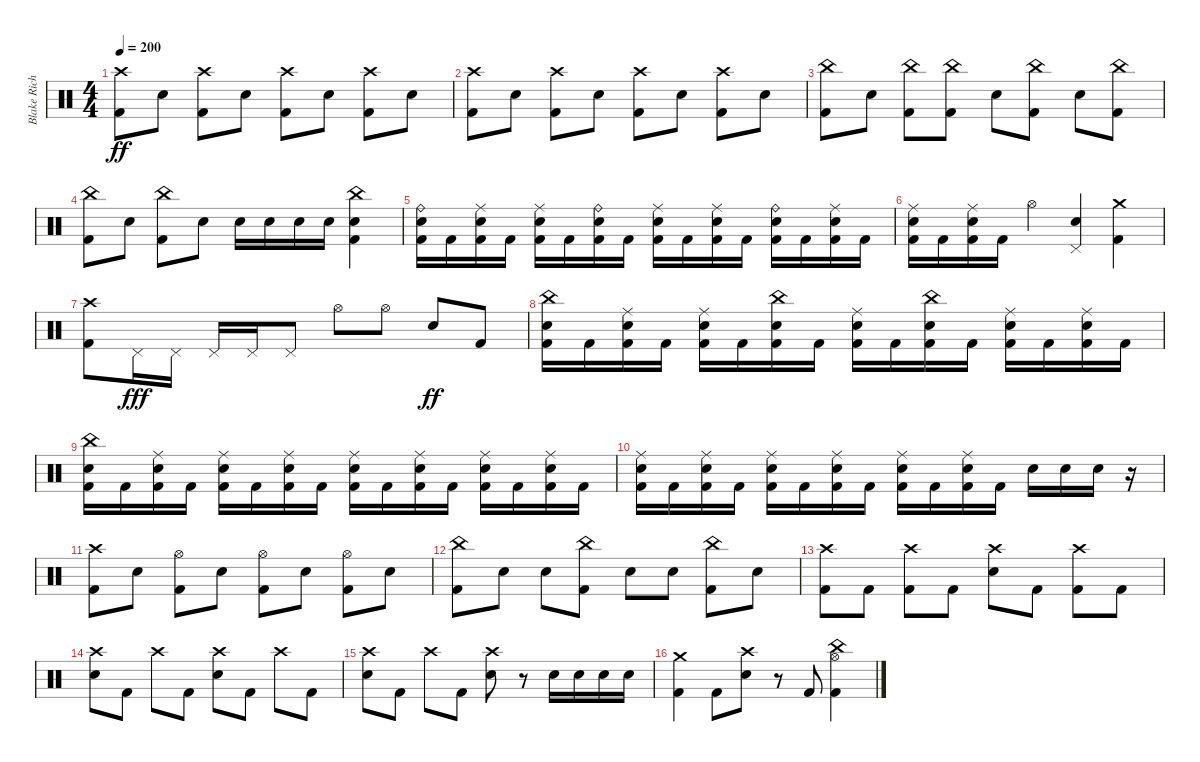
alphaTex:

\track ("Blake Richardson" "Blake Rich") {instrument percussion}
\staff {score}
\articulation defaults
\ts (4 4)
\tempo 200
\clef neutral
\ks c
("Crash high (hit)" "Kick (hit) 2").8{dy ff} "Electric Snare (hit)".8 ("Crash high (hit)" "Kick (hit) 2").8 "Electric Snare (hit)".8 ("Crash high (hit)" "Kick (hit) 2").8 "Electric Snare (hit)".8 ("Crash high (hit)" "Kick (hit) 2").8 "Electric Snare (hit)".8 |
("Crash high (hit)" "Kick (hit) 2").8 "Electric Snare (hit)".8 ("Crash high (hit)" "Kick (hit) 2").8 "Electric Snare (hit)".8 ("Crash high (hit)" "Kick (hit) 2").8 "Electric Snare (hit)".8 ("Crash high (hit)" "Kick (hit) 2").8 "Electric Snare (hit)".8 |
("China (hit)" "Kick (hit) 2").8 "Electric Snare (hit)".8 ("China (hit)" "Kick (hit) 2").8 ("China (hit)" "Kick (hit) 2").8 "Electric Snare (hit)".8 ("China (hit)" "Kick (hit) 2").8 "Electric Snare (hit)".8 ("China (hit)" "Kick (hit) 2").8 |
("China (hit)" "Kick (hit) 2").8 "Electric Snare (hit)".8 ("China (hit)" "Kick (hit) 2").8 "Electric Snare (hit)".8 "Electric Snare (hit)".16 "Electric Snare (hit)".16 "Electric Snare (hit)".16 "Electric Snare (hit)".16 ("China (hit)" "Electric Snare (hit)" "Kick (hit) 2").4 |
("Ride (bell)" "Electric Snare (hit)" "Kick (hit) 2").16 "Kick (hit) 2".16 ("Ride (middle)" "Electric Snare (hit)" "Kick (hit) 2").16 "Kick (hit) 2".16 ("Ride (middle)" "Electric Snare (hit)" "Kick (hit) 2").16 "Kick (hit) 2".16 ("Ride (bell)" "Electric Snare (hit)" "Kick (hit) 2").16 "Kick (hit) 2".16 ("Ride (middle)" "Electric Snare (hit)" "Kick (hit) 2").16 "Kick (hit) 2".16 ("Ride (middle)" "Electric Snare (hit)" "Kick (hit) 2").16 "Kick (hit) 2".16 ("Ride (bell)" "Electric Snare (hit)" "Kick (hit) 2").16 "Kick (hit) 2".16 ("Ride (middle)" "Electric Snare (hit)" "Kick (hit) 2").16 "Kick (hit) 2".16 |
("Ride (middle)" "Electric Snare (hit)" "Kick (hit) 2").16 "Kick (hit) 2".16 ("Ride (middle)" "Electric Snare (hit)" "Kick (hit) 2").16 "Kick (hit) 2".16 "Hi-Hat (open)".4 ("Pedal Hi-Hat (hit)" "Electric Snare (hit)").4 ("Crash medium (hit)" "Kick (hit) 2").4 |
("Crash high (hit)" "Kick (hit) 2").8 "Pedal Hi-Hat (hit)".16{dy fff} "Pedal Hi-Hat (hit)".16 "Pedal Hi-Hat (hit)".16 "Pedal Hi-Hat (hit)".16 "Pedal Hi-Hat (hit)".8 "Hi-Hat (open)".8 "Hi-Hat (open)".8 "Electric Snare (hit)".8{dy ff} "Kick (hit) 2".8 |
("China (hit)" "Electric Snare (hit)" "Kick (hit) 2").16 "Kick (hit) 2".16 ("Ride (middle)" "Electric Snare (hit)" "Kick (hit) 2").16 "Kick (hit) 2".16 ("Ride (middle)" "Electric Snare (hit)" "Kick (hit) 2").16 "Kick (hit) 2".16 ("China (hit)" "Electric Snare (hit)" "Kick (hit) 2").16 "Kick (hit) 2".16 ("Ride (middle)" "Electric Snare (hit)" "Kick (hit) 2").16 "Kick (hit) 2".16 ("China (hit)" "Electric Snare (hit)" "Kick (hit) 2").16 "Kick (hit) 2".16 ("Ride (middle)" "Electric Snare (hit)" "Kick (hit) 2").16 "Kick (hit) 2".16 ("Ride (middle)" "Electric Snare (hit)" "Kick (hit) 2").16 "Kick (hit) 2".16 |
("China (hit)" "Electric Snare (hit)" "Kick (hit) 2").16 "Kick (hit) 2".16 ("Ride (middle)" "Electric Snare (hit)" "Kick (hit) 2").16 "Kick (hit) 2".16 ("Ride (middle)" "Electric Snare (hit)" "Kick (hit) 2").16 "Kick (hit) 2".16 ("Ride (middle)" "Electric Snare (hit)" "Kick (hit) 2").16 "Kick (hit) 2".16 ("Ride (middle)" "Electric Snare (hit)" "Kick (hit) 2").16 "Kick (hit) 2".16 ("Ride (middle)" "Electric Snare (hit)" "Kick (hit) 2").16 "Kick (hit) 2".16 ("Ride (middle)" "Electric Snare (hit)" "Kick (hit) 2").16 "Kick (hit) 2".16 ("Ride (middle)" "Electric Snare (hit)" "Kick (hit) 2").16 "Kick (hit) 2".16 |
("Ride (middle)" "Electric Snare (hit)" "Kick (hit) 2").16 "Kick (hit) 2".16 ("Ride (middle)" "Electric Snare (hit)" "Kick (hit) 2").16 "Kick (hit) 2".16 ("Ride (middle)" "Electric Snare (hit)" "Kick (hit) 2").16 "Kick (hit) 2".16 ("Ride (middle)" "Electric Snare (hit)" "Kick (hit) 2").16 "Kick (hit) 2".16 ("Ride (middle)" "Electric Snare (hit)" "Kick (hit) 2").16 "Kick (hit) 2".16 ("Ride (middle)" "Electric Snare (hit)" "Kick (hit) 2").16 "Kick (hit) 2".16 "Electric Snare (hit)".16 "Electric Snare (hit)".16 "Electric Snare (hit)".16 r.16 |
("Crash high (hit)" "Kick (hit) 2").8 "Electric Snare (hit)".8 ("Hi-Hat (open)" "Kick (hit) 2").8 "Electric Snare (hit)".8 ("Hi-Hat (open)" "Kick (hit) 2").8 "Electric Snare (hit)".8 ("Hi-Hat (open)" "Kick (hit) 2").8 "Electric Snare (hit)".8 |
("China (hit)" "Kick (hit) 2").8 "Electric Snare (hit)".8 "Electric Snare (hit)".8 ("China (hit)" "Kick (hit) 2").8 "Electric Snare (hit)".8 "Electric Snare (hit)".8 ("China (hit)" "Kick (hit) 2").8 "Electric Snare (hit)".8 |
("Crash high (hit)" "Kick (hit) 2").8 "Kick (hit) 2".8 ("Crash high (hit)" "Kick (hit) 2").8 "Kick (hit) 2".8 ("Crash high (hit)" "Electric Snare (hit)").8 "Kick (hit) 2".8 ("Crash high (hit)" "Kick (hit) 2").8 "Kick (hit) 2".8 |
("Crash high (hit)" "Electric Snare (hit)").8 "Kick (hit) 2".8 "Crash high (hit)".8 "Kick (hit) 2".8 ("Crash high (hit)" "Electric Snare (hit)").8 "Kick (hit) 2".8 "Crash high (hit)".8 "Kick (hit) 2".8 |
("Crash high (hit)" "Electric Snare (hit)").8 "Kick (hit) 2".8 "Crash high (hit)".8 "Kick (hit) 2".8 ("Crash high (hit)" "Electric Snare (hit)").8 r.8 "Electric Snare (hit)".16 "Electric Snare (hit)".16 "Electric Snare (hit)".16 "Electric Snare (hit)".16 |
("Crash medium (hit)" "Kick (hit) 2").4 "Kick (hit) 2".8 ("Crash high (hit)" "Electric Snare (hit)").8 r.8 "Kick (hit) 2".8 ("Hi-Hat (open)" "China (hit)" "Kick (hit) 2").4
